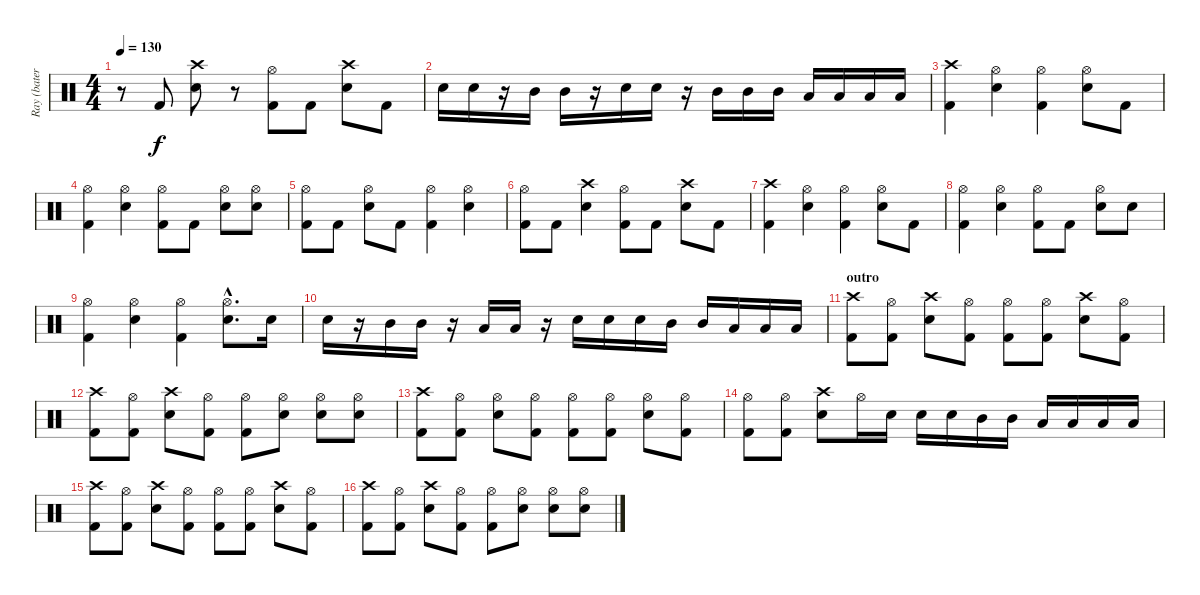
\track ("Ray (batería)" "Ray (bater") {instrument percussion}
\staff {score}
\articulation defaults
\ts (4 4)
\tempo 130
\clef neutral
\ks c
r.8{dy f} "Kick (hit) 2".8 ("Crash high (hit)" "Snare (hit) 2").8 r.8 ("Hi-Hat (open)" "Kick (hit) 2").8 "Kick (hit) 2".8 ("Crash high (hit)" "Snare (hit) 2").8 "Kick (hit) 2".8 |
"Snare (hit) 2".16 "Snare (hit) 2".16 r.16 "Mid Tom (hit)".16 "Mid Tom (hit)".16 r.16 "Snare (hit) 2".16 "Snare (hit) 2".16 r.16 "Mid Tom (hit)".16 "Mid Tom (hit)".16 "Mid Tom (hit)".16 "Low Tom (hit)".16 "Low Tom (hit)".16 "Low Floor Tom (hit)".16 "Low Floor Tom (hit)".16 |
\section ("" "")
("Crash high (hit)" "Kick (hit) 2").4 ("Hi-Hat (open)" "Snare (hit) 2").4 ("Hi-Hat (open)" "Kick (hit) 2").4 ("Hi-Hat (open)" "Snare (hit) 2").8 "Kick (hit) 2".8 |
("Hi-Hat (open)" "Kick (hit) 2").4 ("Hi-Hat (open)" "Snare (hit) 2").4 ("Hi-Hat (open)" "Kick (hit) 2").8 "Kick (hit) 2".8 ("Hi-Hat (open)" "Snare (hit) 2").8 ("Hi-Hat (open)" "Snare (hit) 2").8 |
("Hi-Hat (open)" "Kick (hit) 2").8 "Kick (hit) 2".8 ("Hi-Hat (open)" "Snare (hit) 2").8 "Kick (hit) 2".8 ("Hi-Hat (open)" "Kick (hit) 2").4 ("Hi-Hat (open)" "Snare (hit) 2").4 |
("Hi-Hat (open)" "Kick (hit) 2").8 "Kick (hit) 2".8 ("Crash high (hit)" "Snare (hit) 2").4 ("Hi-Hat (open)" "Kick (hit) 2").8 "Kick (hit) 2".8 ("Crash high (hit)" "Snare (hit) 2").8 "Kick (hit) 2".8 |
("Crash high (hit)" "Kick (hit) 2").4 ("Hi-Hat (open)" "Snare (hit) 2").4 ("Hi-Hat (open)" "Kick (hit) 2").4 ("Hi-Hat (open)" "Snare (hit) 2").8 "Kick (hit) 2".8 |
("Hi-Hat (open)" "Kick (hit) 2").4 ("Hi-Hat (open)" "Snare (hit) 2").4 ("Hi-Hat (open)" "Kick (hit) 2").8 "Kick (hit) 2".8 ("Hi-Hat (open)" "Snare (hit) 2").8 "Snare (hit) 2".8 |
("Hi-Hat (open)" "Kick (hit) 2").4 ("Hi-Hat (open)" "Snare (hit) 2").4 ("Hi-Hat (open)" "Kick (hit) 2").4 ("Hi-Hat (open)"{hac} "Snare (hit) 2"{hac}).8{d} "Snare (hit) 2".16 |
"Snare (hit) 2".16 r.16 "Mid Tom (hit)".16 "Mid Tom (hit)".16 r.16 "Low Tom (hit)".16 "Low Tom (hit)".16 r.16 "Snare (hit) 2".16 "Snare (hit) 2".16 "Snare (hit) 2".16 "Mid Tom (hit)".16 "Mid Tom (hit)".16 "Low Tom (hit)".16 "Low Tom (hit)".16 "Low Floor Tom (hit)".16 |
\section ("" "outro")
("Crash high (hit)" "Kick (hit) 2").8 ("Hi-Hat (open)" "Kick (hit) 2").8 ("Crash high (hit)" "Snare (hit) 2").8 ("Hi-Hat (open)" "Kick (hit) 2").8 ("Hi-Hat (open)" "Kick (hit) 2").8 ("Hi-Hat (open)" "Kick (hit) 2").8 ("Crash high (hit)" "Snare (hit) 2").8 ("Hi-Hat (open)" "Kick (hit) 2").8 |
("Crash high (hit)" "Kick (hit) 2").8 ("Hi-Hat (open)" "Kick (hit) 2").8 ("Crash high (hit)" "Snare (hit) 2").8 ("Hi-Hat (open)" "Kick (hit) 2").8 ("Hi-Hat (open)" "Kick (hit) 2").8 ("Hi-Hat (open)" "Snare (hit) 2").8 ("Hi-Hat (open)" "Snare (hit) 2").8 ("Hi-Hat (open)" "Snare (hit) 2").8 |
("Crash high (hit)" "Kick (hit) 2").8 ("Hi-Hat (open)" "Kick (hit) 2").8 ("Hi-Hat (open)" "Snare (hit) 2").8 ("Hi-Hat (open)" "Kick (hit) 2").8 ("Hi-Hat (open)" "Kick (hit) 2").8 ("Hi-Hat (open)" "Kick (hit) 2").8 ("Hi-Hat (open)" "Snare (hit) 2").8 ("Hi-Hat (open)" "Kick (hit) 2").8 |
("Hi-Hat (open)" "Kick (hit) 2").8 ("Hi-Hat (open)" "Kick (hit) 2").8 ("Crash high (hit)" "Snare (hit) 2").8 "Hi-Hat (open)".16 "Snare (hit) 2".16 "Snare (hit) 2".16 "Snare (hit) 2".16 "Mid Tom (hit)".16 "Mid Tom (hit)".16 "Low Tom (hit)".16 "Low Tom (hit)".16 "Low Floor Tom (hit)".16 "Low Floor Tom (hit)".16 |
("Crash high (hit)" "Kick (hit) 2").8 ("Hi-Hat (open)" "Kick (hit) 2").8 ("Crash high (hit)" "Snare (hit) 2").8 ("Hi-Hat (open)" "Kick (hit) 2").8 ("Hi-Hat (open)" "Kick (hit) 2").8 ("Hi-Hat (open)" "Kick (hit) 2").8 ("Crash high (hit)" "Snare (hit) 2").8 ("Hi-Hat (open)" "Kick (hit) 2").8 |
("Crash high (hit)" "Kick (hit) 2").8 ("Hi-Hat (open)" "Kick (hit) 2").8 ("Crash high (hit)" "Snare (hit) 2").8 ("Hi-Hat (open)" "Kick (hit) 2").8 ("Hi-Hat (open)" "Kick (hit) 2").8 ("Hi-Hat (open)" "Snare (hit) 2").8 ("Hi-Hat (open)" "Snare (hit) 2").8 ("Hi-Hat (open)" "Snare (hit) 2").8
